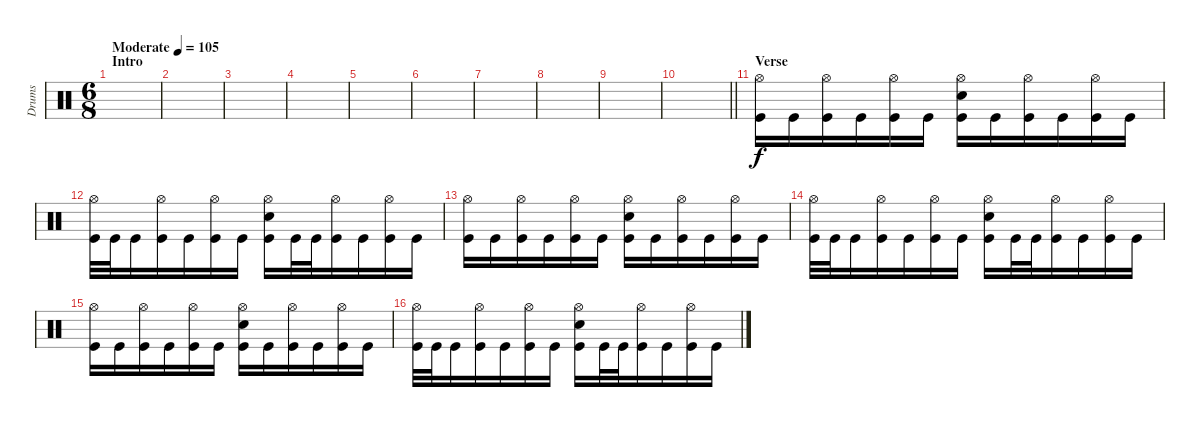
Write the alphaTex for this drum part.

\track ("Drums" "Drums") {instrument percussion}
\staff {score}
\articulation defaults
\ts (6 8)
\section ("" "Intro")
\tempo (105 "Moderate")
\clef neutral
\ks c
|
|
|
|
|
|
|
|
|
\barLineRight lightlight
|
\section ("" "Verse")
("Hi-Hat (open)" "Kick (hit)").16 "Kick (hit)".16 ("Hi-Hat (open)" "Kick (hit)").16 "Kick (hit)".16 ("Hi-Hat (open)" "Kick (hit)").16 "Kick (hit)".16 ("Hi-Hat (open)" "Electric Snare (hit)" "Kick (hit)").16 "Kick (hit)".16 ("Hi-Hat (open)" "Kick (hit)").16 "Kick (hit)".16 ("Hi-Hat (open)" "Kick (hit)").16 "Kick (hit)".16 |
("Hi-Hat (open)" "Kick (hit)").32 "Kick (hit)".32 "Kick (hit)".16 ("Hi-Hat (open)" "Kick (hit)").16 "Kick (hit)".16 ("Hi-Hat (open)" "Kick (hit)").16 "Kick (hit)".16 ("Hi-Hat (open)" "Electric Snare (hit)" "Kick (hit)").16 "Kick (hit)".32 "Kick (hit)".32 ("Hi-Hat (open)" "Kick (hit)").16 "Kick (hit)".16 ("Hi-Hat (open)" "Kick (hit)").16 "Kick (hit)".16 |
("Hi-Hat (open)" "Kick (hit)").16 "Kick (hit)".16 ("Hi-Hat (open)" "Kick (hit)").16 "Kick (hit)".16 ("Hi-Hat (open)" "Kick (hit)").16 "Kick (hit)".16 ("Hi-Hat (open)" "Electric Snare (hit)" "Kick (hit)").16 "Kick (hit)".16 ("Hi-Hat (open)" "Kick (hit)").16 "Kick (hit)".16 ("Hi-Hat (open)" "Kick (hit)").16 "Kick (hit)".16 |
("Hi-Hat (open)" "Kick (hit)").32 "Kick (hit)".32 "Kick (hit)".16 ("Hi-Hat (open)" "Kick (hit)").16 "Kick (hit)".16 ("Hi-Hat (open)" "Kick (hit)").16 "Kick (hit)".16 ("Hi-Hat (open)" "Electric Snare (hit)" "Kick (hit)").16 "Kick (hit)".32 "Kick (hit)".32 ("Hi-Hat (open)" "Kick (hit)").16 "Kick (hit)".16 ("Hi-Hat (open)" "Kick (hit)").16 "Kick (hit)".16 |
("Hi-Hat (open)" "Kick (hit)").16 "Kick (hit)".16 ("Hi-Hat (open)" "Kick (hit)").16 "Kick (hit)".16 ("Hi-Hat (open)" "Kick (hit)").16 "Kick (hit)".16 ("Hi-Hat (open)" "Electric Snare (hit)" "Kick (hit)").16 "Kick (hit)".16 ("Hi-Hat (open)" "Kick (hit)").16 "Kick (hit)".16 ("Hi-Hat (open)" "Kick (hit)").16 "Kick (hit)".16 |
("Hi-Hat (open)" "Kick (hit)").32 "Kick (hit)".32 "Kick (hit)".16 ("Hi-Hat (open)" "Kick (hit)").16 "Kick (hit)".16 ("Hi-Hat (open)" "Kick (hit)").16 "Kick (hit)".16 ("Hi-Hat (open)" "Electric Snare (hit)" "Kick (hit)").16 "Kick (hit)".32 "Kick (hit)".32 ("Hi-Hat (open)" "Kick (hit)").16 "Kick (hit)".16 ("Hi-Hat (open)" "Kick (hit)").16 "Kick (hit)".16
